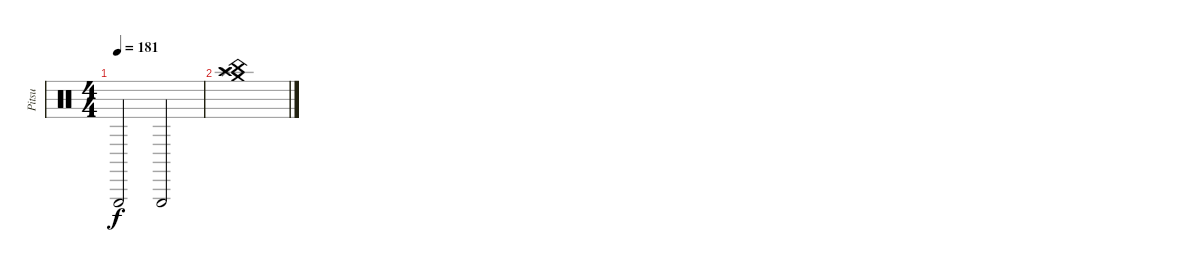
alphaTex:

\track ("Pitsu" "Pitsu") {instrument percussion}
\staff {score}
\articulation defaults
\ts (4 4)
\tempo 181
\clef neutral
\ks c "Triangle (hit)".2{dy f} "Triangle (hit)".2
|
("Crash medium (hit)" "Splash (hit)" "China (hit)" "Crash high (hit)").1
